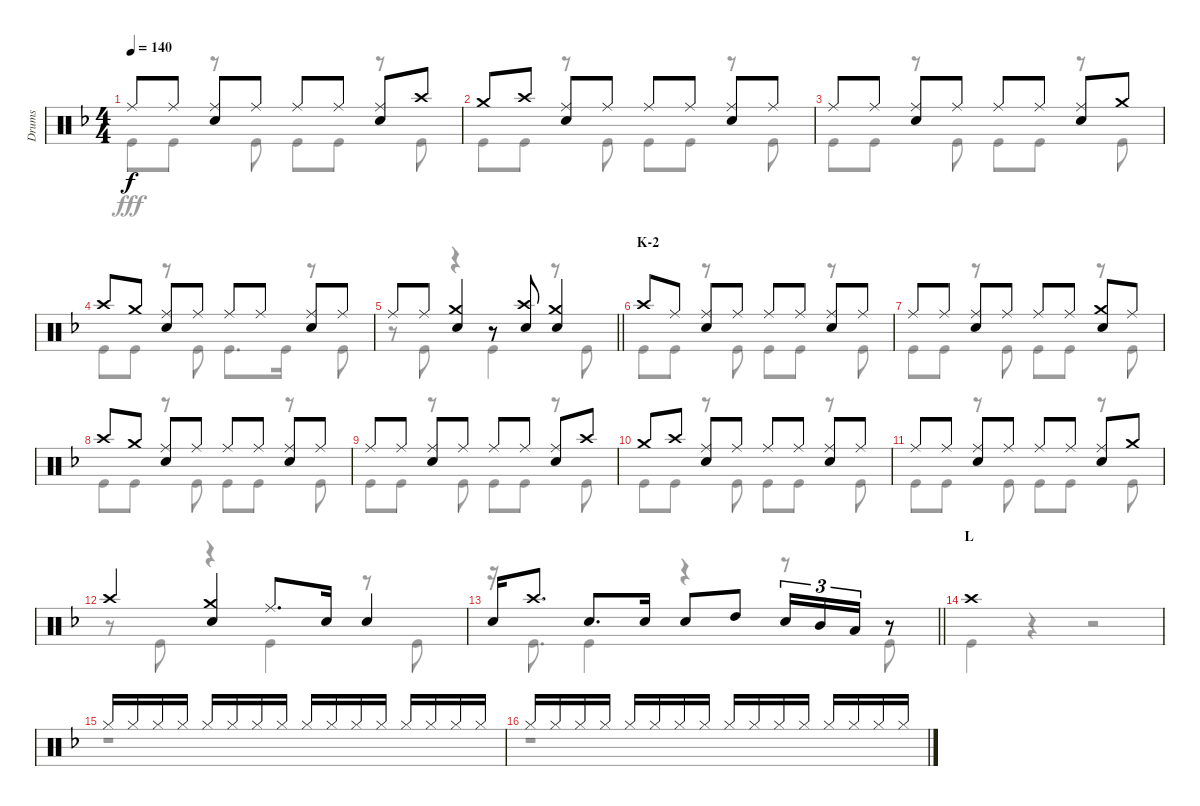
\track ("Drums" "Drums") {instrument percussion}
\staff {score}
\articulation defaults
\voice
\ts (4 4)
\tempo 140
\clef neutral
\ks f "Ride (middle)".8{dy f} "Ride (middle)".8
("Ride (middle)" "Snare (hit) 2").8 "Ride (middle)".8 "Ride (middle)".8 "Ride (middle)".8 ("Ride (middle)" "Snare (hit) 2").8 "Crash high (hit)".8 |
"Crash medium (hit)".8 "Crash high (hit)".8 ("Ride (middle)" "Snare (hit) 2").8 "Ride (middle)".8 "Ride (middle)".8 "Ride (middle)".8 ("Ride (middle)" "Snare (hit) 2").8 "Ride (middle)".8 |
"Ride (middle)".8 "Ride (middle)".8 ("Ride (middle)" "Snare (hit) 2").8 "Ride (middle)".8 "Ride (middle)".8 "Ride (middle)".8 ("Ride (middle)" "Snare (hit) 2").8 "Crash medium (hit)".8 |
"Crash high (hit)".8 "Crash medium (hit)".8 ("Ride (middle)" "Snare (hit) 2").8 "Ride (middle)".8 "Ride (middle)".8 "Ride (middle)".8 ("Ride (middle)" "Snare (hit) 2").8 "Ride (middle)".8 |
\barLineRight lightlight "Ride (middle)".8 "Ride (middle)".8
("Crash medium (hit)" "Snare (hit) 2").4 r.8 ("Crash high (hit)" "Snare (hit) 2").8 ("Crash medium (hit)" "Snare (hit) 2").4 |
\section ("" "K-2")
"Crash high (hit)".8 "Ride (middle)".8 ("Ride (middle)" "Snare (hit) 2").8 "Ride (middle)".8 "Ride (middle)".8 "Ride (middle)".8 ("Ride (middle)" "Snare (hit) 2").8 "Ride (middle)".8 |
"Ride (middle)".8 "Ride (middle)".8 ("Ride (middle)" "Snare (hit) 2").8 "Ride (middle)".8 "Ride (middle)".8 "Ride (middle)".8 ("Crash medium (hit)" "Snare (hit) 2").8 "Ride (middle)".8 |
"Crash high (hit)".8 "Crash medium (hit)".8 ("Ride (middle)" "Snare (hit) 2").8 "Ride (middle)".8 "Ride (middle)".8 "Ride (middle)".8 ("Ride (middle)" "Snare (hit) 2").8 "Ride (middle)".8 |
"Ride (middle)".8 "Ride (middle)".8 ("Ride (middle)" "Snare (hit) 2").8 "Ride (middle)".8 "Ride (middle)".8 "Ride (middle)".8 ("Ride (middle)" "Snare (hit) 2").8 "Crash high (hit)".8 |
"Crash medium (hit)".8 "Crash high (hit)".8 ("Ride (middle)" "Snare (hit) 2").8 "Ride (middle)".8 "Ride (middle)".8 "Ride (middle)".8 ("Ride (middle)" "Snare (hit) 2").8 "Ride (middle)".8 |
"Ride (middle)".8 "Ride (middle)".8 ("Ride (middle)" "Snare (hit) 2").8 "Ride (middle)".8 "Ride (middle)".8 "Ride (middle)".8 ("Ride (middle)" "Snare (hit) 2").8 "Crash medium (hit)".8 |
"Crash high (hit)".4 ("Crash medium (hit)" "Snare (hit) 2").4 "Ride (middle)".8{d} "Snare (hit) 2".16 "Snare (hit) 2".4 |
\barLineRight lightlight "Snare (hit) 2".16 "Crash high (hit)".8{d} "Snare (hit) 2".8{d} "Snare (hit) 2".16 "Snare (hit) 2".8 "High Tom (hit)".8 "Snare (hit) 2".16{tu (3 2)} "Mid Tom (hit)".16{tu (3 2)} "Low Tom (hit)".16{tu (3 2)}
r.8 |
\section ("" "L")
"Crash high (hit)".1 |
"Hi-Hat (closed)".16 "Hi-Hat (closed)".16 "Hi-Hat (closed)".16 "Hi-Hat (closed)".16 "Hi-Hat (closed)".16 "Hi-Hat (closed)".16 "Hi-Hat (closed)".16 "Hi-Hat (closed)".16 "Hi-Hat (closed)".16 "Hi-Hat (closed)".16 "Hi-Hat (closed)".16 "Hi-Hat (closed)".16 "Hi-Hat (closed)".16 "Hi-Hat (closed)".16 "Hi-Hat (closed)".16 "Hi-Hat (closed)".16 |
"Hi-Hat (closed)".16 "Hi-Hat (closed)".16 "Hi-Hat (closed)".16 "Hi-Hat (closed)".16 "Hi-Hat (closed)".16 "Hi-Hat (closed)".16 "Hi-Hat (closed)".16 "Hi-Hat (closed)".16 "Hi-Hat (closed)".16 "Hi-Hat (closed)".16 "Hi-Hat (closed)".16 "Hi-Hat (closed)".16 "Hi-Hat (closed)".16 "Hi-Hat (closed)".16 "Hi-Hat (closed)".16 "Hi-Hat (closed)".16
\voice
\clef neutral
\ottava regular
\simile none
\ks f "Kick (hit)".8{dy fff} "Kick (hit)".8
r.8 "Kick (hit)".8 "Kick (hit)".8 "Kick (hit)".8 r.8 "Kick (hit)".8 |
"Kick (hit)".8 "Kick (hit)".8 r.8 "Kick (hit)".8 "Kick (hit)".8 "Kick (hit)".8 r.8 "Kick (hit)".8 |
"Kick (hit)".8 "Kick (hit)".8 r.8 "Kick (hit)".8 "Kick (hit)".8 "Kick (hit)".8 r.8 "Kick (hit)".8 |
"Kick (hit)".8 "Kick (hit)".8 r.8 "Kick (hit)".8 "Kick (hit)".8{d} "Kick (hit)".16 r.8 "Kick (hit)".8 |
\barLineRight lightlight
r.8 "Kick (hit)".8 r.4 "Kick (hit)".4 r.8 "Kick (hit)".8 |
"Kick (hit)".8 "Kick (hit)".8 r.8 "Kick (hit)".8 "Kick (hit)".8 "Kick (hit)".8 r.8 "Kick (hit)".8 |
"Kick (hit)".8 "Kick (hit)".8 r.8 "Kick (hit)".8 "Kick (hit)".8 "Kick (hit)".8 r.8 "Kick (hit)".8 |
"Kick (hit)".8 "Kick (hit)".8 r.8 "Kick (hit)".8 "Kick (hit)".8 "Kick (hit)".8 r.8 "Kick (hit)".8 |
"Kick (hit)".8 "Kick (hit)".8 r.8 "Kick (hit)".8 "Kick (hit)".8 "Kick (hit)".8 r.8 "Kick (hit)".8 |
"Kick (hit)".8 "Kick (hit)".8 r.8 "Kick (hit)".8 "Kick (hit)".8 "Kick (hit)".8 r.8 "Kick (hit)".8 |
"Kick (hit)".8 "Kick (hit)".8 r.8 "Kick (hit)".8 "Kick (hit)".8 "Kick (hit)".8 r.8 "Kick (hit)".8 |
r.8 "Kick (hit)".8 r.4 "Kick (hit)".4 r.8 "Kick (hit)".8 |
\barLineRight lightlight
r.16 "Kick (hit)".8{d} "Kick (hit)".4 r.4 r.8 "Kick (hit)".8 |
"Kick (hit)".4 r.4 r.2 |
r.1 |
r.1
